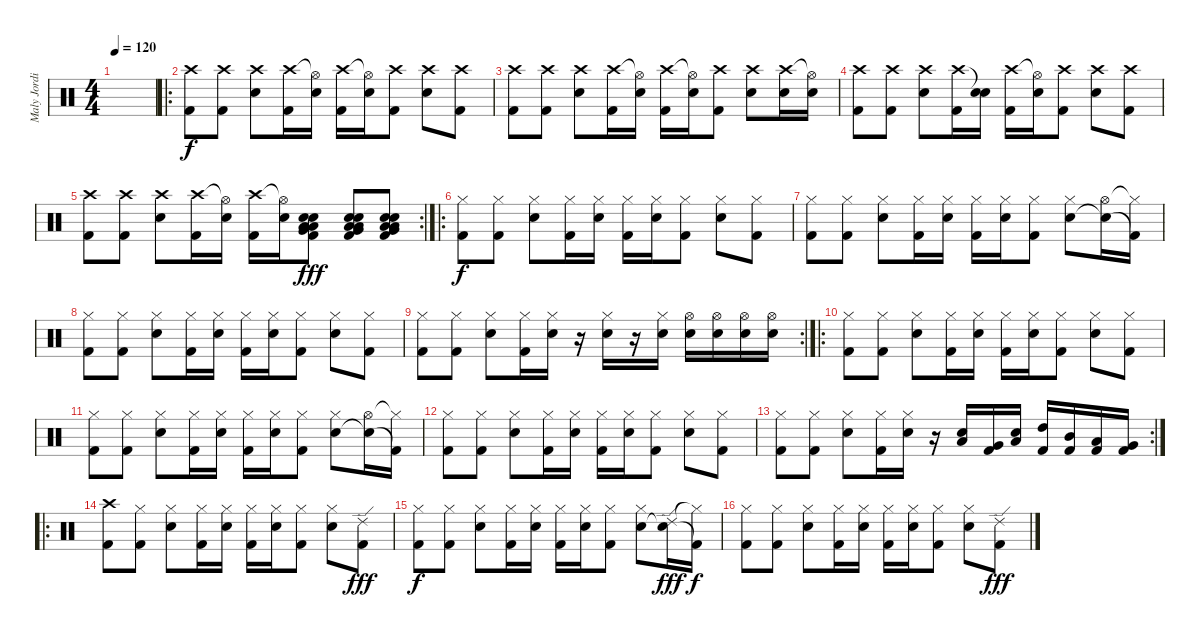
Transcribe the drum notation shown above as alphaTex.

\track ("Maly Jordison   - drums" "Maly Jordi") {instrument percussion}
\staff {score}
\articulation defaults
\ts (4 4)
\tempo 120
\clef neutral
\ks c
|
\ro
("Crash high (hit)" "Kick (hit) 2").8 ("Crash high (hit)" "Kick (hit) 2").8 ("Crash high (hit)" "Electric Snare (hit)").8 ("Crash high (hit)" "Kick (hit) 2").16 ("Hi-Hat (open)"{t} "Electric Snare (hit)").16 ("Crash high (hit)" "Kick (hit) 2").16 ("Hi-Hat (open)"{t} "Electric Snare (hit)").16 ("Crash high (hit)" "Kick (hit) 2").8 ("Crash high (hit)" "Electric Snare (hit)").8 ("Crash high (hit)" "Kick (hit) 2").8 |
("Crash high (hit)" "Kick (hit) 2").8 ("Crash high (hit)" "Kick (hit) 2").8 ("Crash high (hit)" "Electric Snare (hit)").8 ("Crash high (hit)" "Kick (hit) 2").16 ("Hi-Hat (open)"{t} "Electric Snare (hit)").16 ("Crash high (hit)" "Kick (hit) 2").16 ("Hi-Hat (open)"{t} "Electric Snare (hit)").16 ("Crash high (hit)" "Kick (hit) 2").8 ("Crash high (hit)" "Electric Snare (hit)").8 ("Crash high (hit)" "Electric Snare (hit)").16 ("Hi-Hat (open)"{t} "Electric Snare (hit)").16 |
("Crash high (hit)" "Kick (hit) 2").8 ("Crash high (hit)" "Kick (hit) 2").8 ("Crash high (hit)" "Electric Snare (hit)").8 ("Crash high (hit)" "Kick (hit) 2").16 ("Snare (hit)"{t} "Electric Snare (hit)").16 ("Crash high (hit)" "Kick (hit) 2").16 ("Hi-Hat (open)"{t} "Electric Snare (hit)").16 ("Crash high (hit)" "Kick (hit) 2").8 ("Crash high (hit)" "Electric Snare (hit)").8 ("Crash high (hit)" "Kick (hit) 2").8 |
\rc 2
("Crash high (hit)" "Kick (hit) 2").8 ("Crash high (hit)" "Kick (hit) 2").8 ("Crash high (hit)" "Electric Snare (hit)").8 ("Crash high (hit)" "Kick (hit) 2").16 ("Hi-Hat (open)"{t} "Electric Snare (hit)").16 ("Crash high (hit)" "Kick (hit) 2").16 ("Hi-Hat (open)"{t} "Electric Snare (hit)").16 ("Kick (hit) 2" "Very Low Tom (hit)" "Low Floor Tom (hit)" "Low Floor Tom (hit)" "Electric Snare (hit)" "Electric Snare (hit)").8{dy fff} ("Kick (hit) 2" "Very Low Tom (hit)" "Low Floor Tom (hit)" "Low Floor Tom (hit)" "Electric Snare (hit)" "Electric Snare (hit)").8 ("Kick (hit) 2" "Very Low Tom (hit)" "Low Floor Tom (hit)" "Low Floor Tom (hit)" "Electric Snare (hit)" "Electric Snare (hit)").8 |
\ro
("Hi-Hat (closed)" "Kick (hit) 2").8{dy f} ("Hi-Hat (closed)" "Kick (hit) 2").8 ("Hi-Hat (closed)" "Electric Snare (hit)").8 ("Hi-Hat (closed)" "Kick (hit) 2").16 ("Hi-Hat (closed)" "Electric Snare (hit)").16 ("Hi-Hat (closed)" "Kick (hit) 2").16 ("Hi-Hat (closed)" "Electric Snare (hit)").16 ("Hi-Hat (closed)" "Kick (hit) 2").8 ("Hi-Hat (closed)" "Electric Snare (hit)").8 ("Hi-Hat (closed)" "Kick (hit) 2").8 |
("Hi-Hat (closed)" "Kick (hit) 2").8 ("Hi-Hat (closed)" "Kick (hit) 2").8 ("Hi-Hat (closed)" "Electric Snare (hit)").8 ("Hi-Hat (closed)" "Kick (hit) 2").16 ("Hi-Hat (closed)" "Electric Snare (hit)").16 ("Hi-Hat (closed)" "Kick (hit) 2").16 ("Hi-Hat (closed)" "Electric Snare (hit)").16 ("Hi-Hat (closed)" "Kick (hit) 2").8 ("Hi-Hat (closed)" "Electric Snare (hit)").8 ("Hi-Hat (open)" "Electric Snare (hit)"{t}).16 ("Hi-Hat (closed)"{t} "Kick (hit) 2"{t}).16 |
("Hi-Hat (closed)" "Kick (hit) 2").8 ("Hi-Hat (closed)" "Kick (hit) 2").8 ("Hi-Hat (closed)" "Electric Snare (hit)").8 ("Hi-Hat (closed)" "Kick (hit) 2").16 ("Hi-Hat (closed)" "Electric Snare (hit)").16 ("Hi-Hat (closed)" "Kick (hit) 2").16 ("Hi-Hat (closed)" "Electric Snare (hit)").16 ("Hi-Hat (closed)" "Kick (hit) 2").8 ("Hi-Hat (closed)" "Electric Snare (hit)").8 ("Hi-Hat (closed)" "Kick (hit) 2").8 |
\rc 2
("Hi-Hat (closed)" "Kick (hit) 2").8 ("Hi-Hat (closed)" "Kick (hit) 2").8 ("Hi-Hat (closed)" "Electric Snare (hit)").8 ("Hi-Hat (closed)" "Kick (hit) 2").16 ("Hi-Hat (closed)" "Electric Snare (hit)").16 r.16 ("Hi-Hat (closed)" "Electric Snare (hit)").16 r.16 ("Hi-Hat (closed)" "Electric Snare (hit)").16 ("Hi-Hat (open)" "Electric Snare (hit)").16 ("Hi-Hat (open)" "Electric Snare (hit)").16 ("Hi-Hat (open)" "Electric Snare (hit)").16 ("Hi-Hat (open)" "Electric Snare (hit)").16 |
\ro
("Hi-Hat (closed)" "Kick (hit) 2").8 ("Hi-Hat (closed)" "Kick (hit) 2").8 ("Hi-Hat (closed)" "Electric Snare (hit)").8 ("Hi-Hat (closed)" "Kick (hit) 2").16 ("Hi-Hat (closed)" "Electric Snare (hit)").16 ("Hi-Hat (closed)" "Kick (hit) 2").16 ("Hi-Hat (closed)" "Electric Snare (hit)").16 ("Hi-Hat (closed)" "Kick (hit) 2").8 ("Hi-Hat (closed)" "Electric Snare (hit)").8 ("Hi-Hat (closed)" "Kick (hit) 2").8 |
("Hi-Hat (closed)" "Kick (hit) 2").8 ("Hi-Hat (closed)" "Kick (hit) 2").8 ("Hi-Hat (closed)" "Electric Snare (hit)").8 ("Hi-Hat (closed)" "Kick (hit) 2").16 ("Hi-Hat (closed)" "Electric Snare (hit)").16 ("Hi-Hat (closed)" "Kick (hit) 2").16 ("Hi-Hat (closed)" "Electric Snare (hit)").16 ("Hi-Hat (closed)" "Kick (hit) 2").8 ("Hi-Hat (closed)" "Electric Snare (hit)").8 ("Hi-Hat (open)" "Electric Snare (hit)"{t}).16 ("Hi-Hat (closed)"{t} "Kick (hit) 2"{t}).16 |
("Hi-Hat (closed)" "Kick (hit) 2").8 ("Hi-Hat (closed)" "Kick (hit) 2").8 ("Hi-Hat (closed)" "Electric Snare (hit)").8 ("Hi-Hat (closed)" "Kick (hit) 2").16 ("Hi-Hat (closed)" "Electric Snare (hit)").16 ("Hi-Hat (closed)" "Kick (hit) 2").16 ("Hi-Hat (closed)" "Electric Snare (hit)").16 ("Hi-Hat (closed)" "Kick (hit) 2").8 ("Hi-Hat (closed)" "Electric Snare (hit)").8 ("Hi-Hat (closed)" "Kick (hit) 2").8 |
\rc 2
("Hi-Hat (closed)" "Kick (hit) 2").8 ("Hi-Hat (closed)" "Kick (hit) 2").8 ("Hi-Hat (closed)" "Electric Snare (hit)").8 ("Hi-Hat (closed)" "Kick (hit) 2").16 ("Hi-Hat (closed)" "Electric Snare (hit)").16 r.16 ("Low Floor Tom (hit)" "Electric Snare (hit)").16 ("Very Low Tom (hit)" "Kick (hit) 2").16 ("Low Tom (hit)" "Electric Snare (hit)").16 ("High Tom (hit)" "Kick (hit) 2").16 ("Mid Tom (hit)" "Kick (hit) 2").16 ("Low Tom (hit)" "Kick (hit) 2").16 ("Very Low Tom (hit)" "Kick (hit) 2").16 |
\ro
("Crash high (hit)" "Kick (hit) 2").8 ("Hi-Hat (closed)" "Kick (hit) 2").8 ("Hi-Hat (closed)" "Electric Snare (hit)").8 ("Hi-Hat (closed)" "Kick (hit) 2").16 ("Hi-Hat (closed)" "Electric Snare (hit)").16 ("Hi-Hat (closed)" "Kick (hit) 2").16 ("Hi-Hat (closed)" "Electric Snare (hit)").16 ("Hi-Hat (closed)" "Kick (hit) 2").8 ("Hi-Hat (closed)" "Electric Snare (hit)").8 ("Ride (edge) 2" "Kick (hit) 2").8{dy fff} |
("Hi-Hat (closed)" "Kick (hit) 2").8{dy f} ("Hi-Hat (closed)" "Kick (hit) 2").8 ("Hi-Hat (closed)" "Electric Snare (hit)").8 ("Hi-Hat (closed)" "Kick (hit) 2").16 ("Hi-Hat (closed)" "Electric Snare (hit)").16 ("Hi-Hat (closed)" "Kick (hit) 2").16 ("Hi-Hat (closed)" "Electric Snare (hit)").16 ("Hi-Hat (closed)" "Kick (hit) 2").8 ("Hi-Hat (closed)" "Electric Snare (hit)").8 ("Ride (edge) 2" "Electric Snare (hit)"{t}).16{dy fff} ("Hi-Hat (closed)"{t} "Kick (hit) 2"{t}).16{dy f} |
("Hi-Hat (closed)" "Kick (hit) 2").8 ("Hi-Hat (closed)" "Kick (hit) 2").8 ("Hi-Hat (closed)" "Electric Snare (hit)").8 ("Hi-Hat (closed)" "Kick (hit) 2").16 ("Hi-Hat (closed)" "Electric Snare (hit)").16 ("Hi-Hat (closed)" "Kick (hit) 2").16 ("Hi-Hat (closed)" "Electric Snare (hit)").16 ("Hi-Hat (closed)" "Kick (hit) 2").8 ("Hi-Hat (closed)" "Electric Snare (hit)").8 ("Ride (edge) 2" "Kick (hit) 2").8{dy fff}
